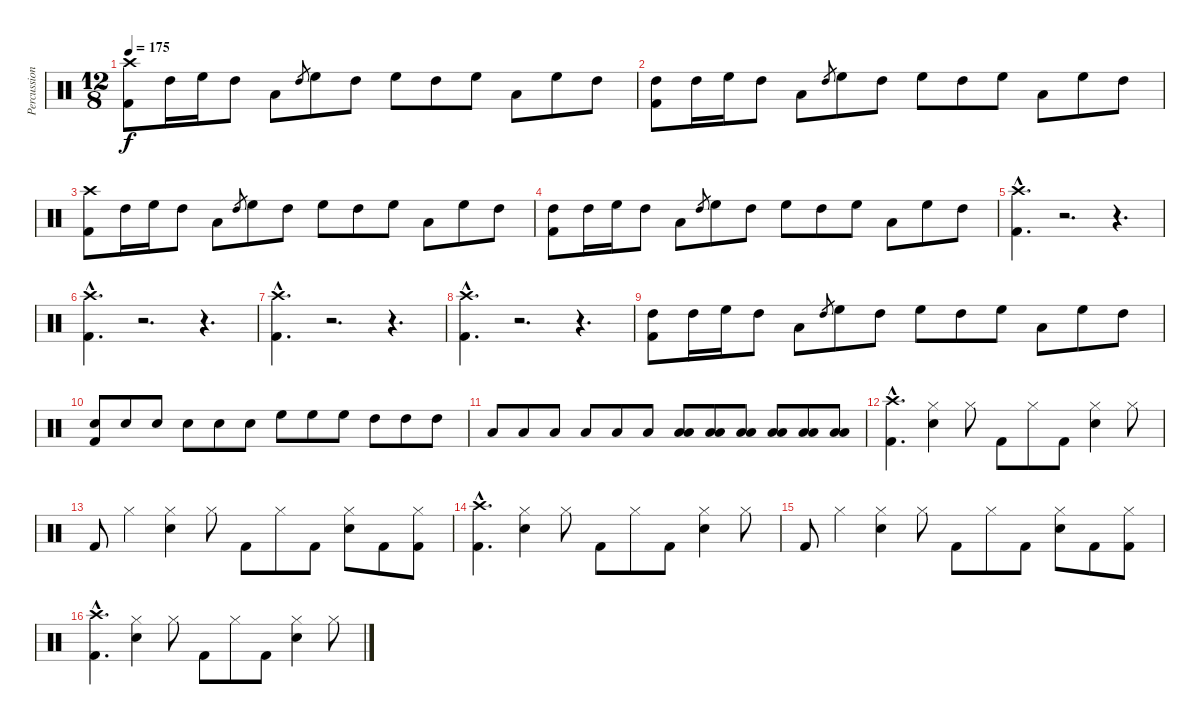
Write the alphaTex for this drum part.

\track ("Percussion" "Percussion") {instrument percussion}
\staff {score}
\articulation defaults
\ts (12 8)
\tempo 175
\clef neutral
\ks c
("Kick (hit) 2" "Crash high (hit)").8{dy f} "High Tom (hit)".16 "High Floor Tom (hit)".16 "High Tom (hit)".8 "Low Tom (hit)".8 "High Tom (hit)".8{gr} "High Floor Tom (hit)".8 "High Tom (hit)".8 "High Floor Tom (hit)".8 "High Tom (hit)".8 "High Floor Tom (hit)".8 "Low Tom (hit)".8 "High Floor Tom (hit)".8 "High Tom (hit)".8 |
("Kick (hit) 2" "High Tom (hit)").8 "High Tom (hit)".16 "High Floor Tom (hit)".16 "High Tom (hit)".8 "Low Tom (hit)".8 "High Tom (hit)".8{gr} "High Floor Tom (hit)".8 "High Tom (hit)".8 "High Floor Tom (hit)".8 "High Tom (hit)".8 "High Floor Tom (hit)".8 "Low Tom (hit)".8 "High Floor Tom (hit)".8 "High Tom (hit)".8 |
("Kick (hit) 2" "Crash high (hit)").8 "High Tom (hit)".16 "High Floor Tom (hit)".16 "High Tom (hit)".8 "Low Tom (hit)".8 "High Tom (hit)".8{gr} "High Floor Tom (hit)".8 "High Tom (hit)".8 "High Floor Tom (hit)".8 "High Tom (hit)".8 "High Floor Tom (hit)".8 "Low Tom (hit)".8 "High Floor Tom (hit)".8 "High Tom (hit)".8 |
("Kick (hit) 2" "High Tom (hit)").8 "High Tom (hit)".16 "High Floor Tom (hit)".16 "High Tom (hit)".8 "Low Tom (hit)".8 "High Tom (hit)".8{gr} "High Floor Tom (hit)".8 "High Tom (hit)".8 "High Floor Tom (hit)".8 "High Tom (hit)".8 "High Floor Tom (hit)".8 "Low Tom (hit)".8 "High Floor Tom (hit)".8 "High Tom (hit)".8 |
("Kick (hit) 2"{hac} "Crash high (hit)"{hac}).4{d} r.2{d} r.4{d} |
("Kick (hit) 2"{hac} "Crash high (hit)"{hac}).4{d} r.2{d} r.4{d} |
("Kick (hit) 2"{hac} "Crash high (hit)"{hac}).4{d} r.2{d} r.4{d} |
("Kick (hit) 2"{hac} "Crash high (hit)"{hac}).4{d} r.2{d} r.4{d} |
("Kick (hit) 2" "High Tom (hit)").8 "High Tom (hit)".16 "High Floor Tom (hit)".16 "High Tom (hit)".8 "Low Tom (hit)".8 "High Tom (hit)".8{gr} "High Floor Tom (hit)".8 "High Tom (hit)".8 "High Floor Tom (hit)".8 "High Tom (hit)".8 "High Floor Tom (hit)".8 "Low Tom (hit)".8 "High Floor Tom (hit)".8 "High Tom (hit)".8 |
("Kick (hit) 2" "Snare (hit) 2").8 "Snare (hit) 2".8 "Snare (hit) 2".8 "Snare (hit) 2".8 "Snare (hit) 2".8 "Snare (hit) 2".8 "High Floor Tom (hit)".8 "High Floor Tom (hit)".8 "High Floor Tom (hit)".8 "High Tom (hit)".8 "High Tom (hit)".8 "High Tom (hit)".8 |
"Low Tom (hit)".8 "Low Tom (hit)".8 "Low Tom (hit)".8 "Low Floor Tom (hit)".8 "Low Floor Tom (hit)".8 "Low Floor Tom (hit)".8 ("Low Tom (hit)" "Low Floor Tom (hit)").8 ("Low Tom (hit)" "Low Floor Tom (hit)").8 ("Low Tom (hit)" "Low Floor Tom (hit)").8 ("Low Tom (hit)" "Low Floor Tom (hit)").8 ("Low Tom (hit)" "Low Floor Tom (hit)").8 ("Low Tom (hit)" "Low Floor Tom (hit)").8 |
("Kick (hit) 2"{hac} "Crash high (hit)"{hac}).4{d} ("Snare (hit) 2" "Hi-Hat (closed)").4 "Hi-Hat (closed)".8 "Kick (hit) 2".8 "Hi-Hat (closed)".8 "Kick (hit) 2".8 ("Snare (hit) 2" "Hi-Hat (closed)").4 "Hi-Hat (closed)".8 |
"Kick (hit) 2".8 "Hi-Hat (closed)".4 ("Snare (hit) 2" "Hi-Hat (closed)").4 "Hi-Hat (closed)".8 "Kick (hit) 2".8 "Hi-Hat (closed)".8 "Kick (hit) 2".8 ("Snare (hit) 2" "Hi-Hat (closed)").8 "Kick (hit) 2".8 ("Kick (hit) 2" "Hi-Hat (closed)").8 |
("Kick (hit) 2"{hac} "Crash high (hit)"{hac}).4{d} ("Snare (hit) 2" "Hi-Hat (closed)").4 "Hi-Hat (closed)".8 "Kick (hit) 2".8 "Hi-Hat (closed)".8 "Kick (hit) 2".8 ("Snare (hit) 2" "Hi-Hat (closed)").4 "Hi-Hat (closed)".8 |
"Kick (hit) 2".8 "Hi-Hat (closed)".4 ("Snare (hit) 2" "Hi-Hat (closed)").4 "Hi-Hat (closed)".8 "Kick (hit) 2".8 "Hi-Hat (closed)".8 "Kick (hit) 2".8 ("Snare (hit) 2" "Hi-Hat (closed)").8 "Kick (hit) 2".8 ("Kick (hit) 2" "Hi-Hat (closed)").8 |
("Kick (hit) 2"{hac} "Crash high (hit)"{hac}).4{d} ("Snare (hit) 2" "Hi-Hat (closed)").4 "Hi-Hat (closed)".8 "Kick (hit) 2".8 "Hi-Hat (closed)".8 "Kick (hit) 2".8 ("Snare (hit) 2" "Hi-Hat (closed)").4 "Hi-Hat (closed)".8
